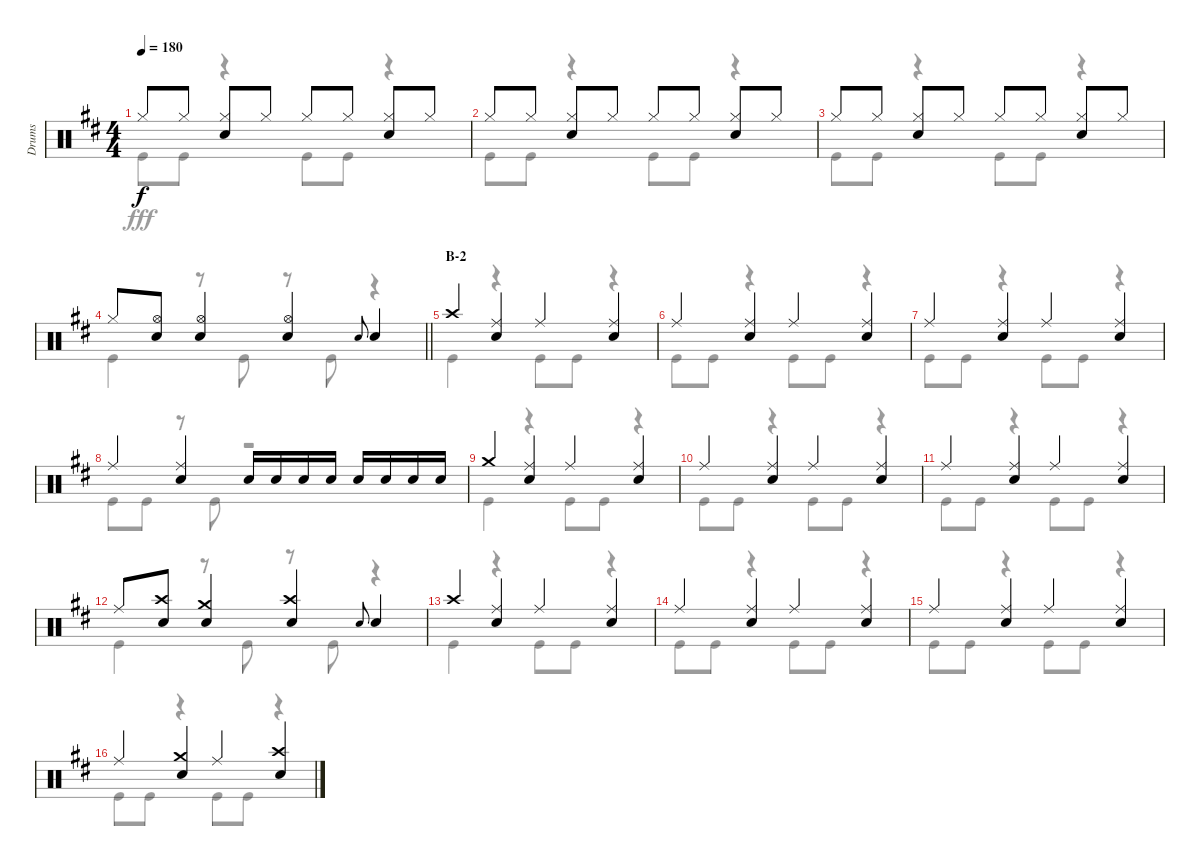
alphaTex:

\track ("Drums" "Drums") {instrument percussion}
\staff {score}
\articulation defaults
\voice
\ts (4 4)
\tempo 180
\clef neutral
\ks d "Hi-Hat (closed)".8{dy f} "Hi-Hat (closed)".8
("Hi-Hat (closed)" "Snare (hit) 2").8 "Hi-Hat (closed)".8 "Hi-Hat (closed)".8 "Hi-Hat (closed)".8 ("Hi-Hat (closed)" "Snare (hit) 2").8 "Hi-Hat (closed)".8 |
"Hi-Hat (closed)".8 "Hi-Hat (closed)".8 ("Hi-Hat (closed)" "Snare (hit) 2").8 "Hi-Hat (closed)".8 "Hi-Hat (closed)".8 "Hi-Hat (closed)".8 ("Hi-Hat (closed)" "Snare (hit) 2").8 "Hi-Hat (closed)".8 |
"Hi-Hat (closed)".8 "Hi-Hat (closed)".8 ("Hi-Hat (closed)" "Snare (hit) 2").8 "Hi-Hat (closed)".8 "Hi-Hat (closed)".8 "Hi-Hat (closed)".8 ("Hi-Hat (closed)" "Snare (hit) 2").8 "Hi-Hat (closed)".8 |
\barLineRight lightlight "Hi-Hat (closed)".8
("Hi-Hat (open)" "Snare (hit) 2").8 ("Hi-Hat (open)" "Snare (hit) 2").4 ("Hi-Hat (open)" "Snare (hit) 2").4 "Snare (hit) 2".8{gr onbeat} "Snare (hit) 2".4 |
\section ("" "B-2")
"Crash high (hit)".4 ("Ride (middle)" "Snare (hit) 2").4 "Ride (middle)".4 ("Ride (middle)" "Snare (hit) 2").4 |
"Ride (middle)".4 ("Ride (middle)" "Snare (hit) 2").4 "Ride (middle)".4 ("Ride (middle)" "Snare (hit) 2").4 |
"Ride (middle)".4 ("Ride (middle)" "Snare (hit) 2").4 "Ride (middle)".4 ("Ride (middle)" "Snare (hit) 2").4 |
"Ride (middle)".4 ("Ride (middle)" "Snare (hit) 2").4 "Snare (hit) 2".16 "Snare (hit) 2".16 "Snare (hit) 2".16 "Snare (hit) 2".16 "Snare (hit) 2".16 "Snare (hit) 2".16 "Snare (hit) 2".16 "Snare (hit) 2".16 |
"Crash medium (hit)".4 ("Ride (middle)" "Snare (hit) 2").4 "Ride (middle)".4 ("Ride (middle)" "Snare (hit) 2").4 |
"Ride (middle)".4 ("Ride (middle)" "Snare (hit) 2").4 "Ride (middle)".4 ("Ride (middle)" "Snare (hit) 2").4 |
"Ride (middle)".4 ("Ride (middle)" "Snare (hit) 2").4 "Ride (middle)".4 ("Ride (middle)" "Snare (hit) 2").4 |
"Ride (middle)".8 ("Crash high (hit)" "Snare (hit) 2").8 ("Crash medium (hit)" "Snare (hit) 2").4 ("Crash high (hit)" "Snare (hit) 2").4 "Snare (hit) 2".8{gr onbeat} "Snare (hit) 2".4 |
"Crash high (hit)".4 ("Ride (middle)" "Snare (hit) 2").4 "Ride (middle)".4 ("Ride (middle)" "Snare (hit) 2").4 |
"Ride (middle)".4 ("Ride (middle)" "Snare (hit) 2").4 "Ride (middle)".4 ("Ride (middle)" "Snare (hit) 2").4 |
"Ride (middle)".4 ("Ride (middle)" "Snare (hit) 2").4 "Ride (middle)".4 ("Ride (middle)" "Snare (hit) 2").4 |
"Ride (middle)".4 ("Crash medium (hit)" "Snare (hit) 2").4 "Ride (middle)".4 ("Crash high (hit)" "Snare (hit) 2").4
\voice
\clef neutral
\ottava regular
\simile none
\ks d "Kick (hit)".8{dy fff} "Kick (hit)".8
r.4 "Kick (hit)".8 "Kick (hit)".8 r.4 |
"Kick (hit)".8 "Kick (hit)".8 r.4 "Kick (hit)".8 "Kick (hit)".8 r.4 |
"Kick (hit)".8 "Kick (hit)".8 r.4 "Kick (hit)".8 "Kick (hit)".8 r.4 |
\barLineRight lightlight "Kick (hit)".4
r.8 "Kick (hit)".8 r.8 "Kick (hit)".8 r.4 |
"Kick (hit)".4 r.4 "Kick (hit)".8 "Kick (hit)".8 r.4 |
"Kick (hit)".8 "Kick (hit)".8 r.4 "Kick (hit)".8 "Kick (hit)".8 r.4 |
"Kick (hit)".8 "Kick (hit)".8 r.4 "Kick (hit)".8 "Kick (hit)".8 r.4 |
"Kick (hit)".8 "Kick (hit)".8 r.8 "Kick (hit)".8 r.2 |
"Kick (hit)".4 r.4 "Kick (hit)".8 "Kick (hit)".8 r.4 |
"Kick (hit)".8 "Kick (hit)".8 r.4 "Kick (hit)".8 "Kick (hit)".8 r.4 |
"Kick (hit)".8 "Kick (hit)".8 r.4 "Kick (hit)".8 "Kick (hit)".8 r.4 |
"Kick (hit)".4 r.8 "Kick (hit)".8 r.8 "Kick (hit)".8 r.4 |
"Kick (hit)".4 r.4 "Kick (hit)".8 "Kick (hit)".8 r.4 |
"Kick (hit)".8 "Kick (hit)".8 r.4 "Kick (hit)".8 "Kick (hit)".8 r.4 |
"Kick (hit)".8 "Kick (hit)".8 r.4 "Kick (hit)".8 "Kick (hit)".8 r.4 |
"Kick (hit)".8 "Kick (hit)".8 r.4 "Kick (hit)".8 "Kick (hit)".8 r.4
